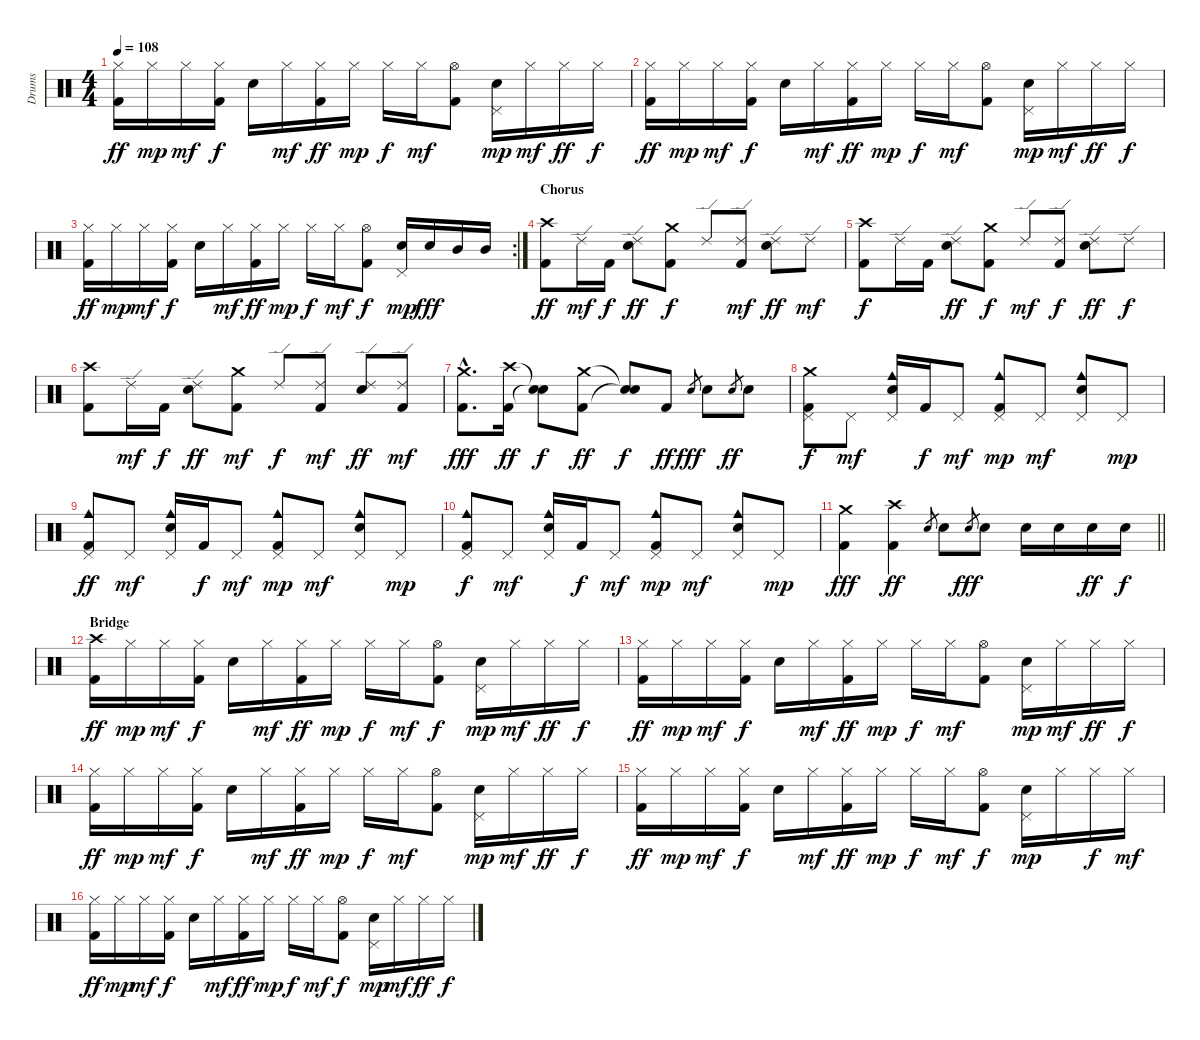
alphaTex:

\track ("Drums" "Drums") {instrument percussion}
\staff {score}
\articulation defaults
\ts (4 4)
\tempo 108
\clef neutral
\ks c
("Hi-Hat (closed)" "Kick (hit) 2").16{dy ff} "Hi-Hat (closed)".16{dy mp} "Hi-Hat (closed)".16{dy mf} ("Hi-Hat (closed)" "Kick (hit) 2").16{dy f} "Electric Snare (hit)".16 "Hi-Hat (closed)".16{dy mf} ("Hi-Hat (closed)" "Kick (hit) 2").16{dy ff} "Hi-Hat (closed)".16{dy mp} "Hi-Hat (closed)".16{dy f} "Hi-Hat (closed)".16{dy mf} ("Hi-Hat (open)" "Kick (hit) 2").8 ("Electric Snare (hit)" "Pedal Hi-Hat (hit)").16{dy mp} "Hi-Hat (closed)".16{dy mf} "Hi-Hat (closed)".16{dy ff} "Hi-Hat (closed)".16{dy f} |
("Hi-Hat (closed)" "Kick (hit) 2").16{dy ff} "Hi-Hat (closed)".16{dy mp} "Hi-Hat (closed)".16{dy mf} ("Hi-Hat (closed)" "Kick (hit) 2").16{dy f} "Electric Snare (hit)".16 "Hi-Hat (closed)".16{dy mf} ("Hi-Hat (closed)" "Kick (hit) 2").16{dy ff} "Hi-Hat (closed)".16{dy mp} "Hi-Hat (closed)".16{dy f} "Hi-Hat (closed)".16{dy mf} ("Hi-Hat (open)" "Kick (hit) 2").8 ("Electric Snare (hit)" "Pedal Hi-Hat (hit)").16{dy mp} "Hi-Hat (closed)".16{dy mf} "Hi-Hat (closed)".16{dy ff} "Hi-Hat (closed)".16{dy f} |
\rc 2
("Hi-Hat (closed)" "Kick (hit) 2").16{dy ff} "Hi-Hat (closed)".16{dy mp} "Hi-Hat (closed)".16{dy mf} ("Hi-Hat (closed)" "Kick (hit) 2").16{dy f} "Electric Snare (hit)".16 "Hi-Hat (closed)".16{dy mf} ("Hi-Hat (closed)" "Kick (hit) 2").16{dy ff} "Hi-Hat (closed)".16{dy mp} "Hi-Hat (closed)".16{dy f} "Hi-Hat (closed)".16{dy mf} ("Hi-Hat (open)" "Kick (hit) 2").8{dy f} ("Electric Snare (hit)" "Pedal Hi-Hat (hit)").16{dy mp} "Electric Snare (hit)".16{dy fff} "Mid Tom (hit)".16 "Mid Tom (hit)".16 |
\section ("" "Chorus")
("Crash high (hit)" "Kick (hit) 2").8{dy ff} "Ride (edge) 2".16{dy mf} "Kick (hit) 2".16{dy f} ("Ride (edge) 2" "Electric Snare (hit)").8{dy ff} ("Crash medium (hit)" "Kick (hit) 2").8{dy f} "Ride (edge) 2".8 ("Ride (edge) 2" "Kick (hit) 2").8{dy mf} ("Ride (edge) 2" "Electric Snare (hit)").8{dy ff} "Ride (edge) 2".8{dy mf} |
("Crash high (hit)" "Kick (hit) 2").8{dy f} "Ride (edge) 2".16 "Kick (hit) 2".16 ("Ride (edge) 2" "Electric Snare (hit)").8{dy ff} ("Crash medium (hit)" "Kick (hit) 2").8{dy f} "Ride (edge) 2".8{dy mf} ("Ride (edge) 2" "Kick (hit) 2").8{dy f} ("Ride (edge) 2" "Electric Snare (hit)").8{dy ff} "Ride (edge) 2".8{dy f} |
("Crash high (hit)" "Kick (hit) 2").8 "Ride (edge) 2".16{dy mf} "Kick (hit) 2".16{dy f} ("Ride (edge) 2" "Electric Snare (hit)").8{dy ff} ("Crash medium (hit)" "Kick (hit) 2").8{dy mf} "Ride (edge) 2".8{dy f} ("Ride (edge) 2" "Kick (hit) 2").8{dy mf} ("Ride (edge) 2" "Electric Snare (hit)").8{dy ff} ("Ride (edge) 2" "Kick (hit) 2").8{dy mf} |
("Crash medium (hit)"{hac} "Kick (hit) 2"{hac}).8{d dy fff} ("Crash high (hit)" "Kick (hit) 2").16{dy ff} ("Snare (hit)"{t} "Snare (hit)"{t}).8{dy f} ("Crash medium (hit)" "Kick (hit) 2").8{dy ff} ("Snare (hit)"{t} "Snare (hit)"{t}).8{dy f} "Kick (hit) 2".8{dy ff} "Electric Snare (hit)".8{gr dy fff} "Electric Snare (hit)".8 "Electric Snare (hit)"{sl}.8{gr dy ff} "Electric Snare (hit)".8 |
("Crash medium (hit)" "Pedal Hi-Hat (hit)" "Kick (hit) 2").8{dy f} "Pedal Hi-Hat (hit)".8{dy mf} ("Cowbell medium (hit)" "Electric Snare (hit)" "Pedal Hi-Hat (hit)").16 "Kick (hit) 2".16{dy f} "Pedal Hi-Hat (hit)".8{dy mf} ("Cowbell medium (hit)" "Pedal Hi-Hat (hit)" "Kick (hit) 2").8{dy mp} "Pedal Hi-Hat (hit)".8{dy mf} ("Cowbell medium (hit)" "Electric Snare (hit)" "Pedal Hi-Hat (hit)").8 "Pedal Hi-Hat (hit)".8{dy mp} |
("Cowbell medium (hit)" "Pedal Hi-Hat (hit)" "Kick (hit) 2").8{dy ff} "Pedal Hi-Hat (hit)".8{dy mf} ("Cowbell medium (hit)" "Electric Snare (hit)" "Pedal Hi-Hat (hit)").16 "Kick (hit) 2".16{dy f} "Pedal Hi-Hat (hit)".8{dy mf} ("Cowbell medium (hit)" "Pedal Hi-Hat (hit)" "Kick (hit) 2").8{dy mp} "Pedal Hi-Hat (hit)".8{dy mf} ("Cowbell medium (hit)" "Electric Snare (hit)" "Pedal Hi-Hat (hit)").8 "Pedal Hi-Hat (hit)".8{dy mp} |
("Cowbell medium (hit)" "Pedal Hi-Hat (hit)" "Kick (hit) 2").8{dy f} "Pedal Hi-Hat (hit)".8{dy mf} ("Cowbell medium (hit)" "Electric Snare (hit)" "Pedal Hi-Hat (hit)").16 "Kick (hit) 2".16{dy f} "Pedal Hi-Hat (hit)".8{dy mf} ("Cowbell medium (hit)" "Pedal Hi-Hat (hit)" "Kick (hit) 2").8{dy mp} "Pedal Hi-Hat (hit)".8{dy mf} ("Cowbell medium (hit)" "Electric Snare (hit)" "Pedal Hi-Hat (hit)").8 "Pedal Hi-Hat (hit)".8{dy mp} |
\barLineRight lightlight
("Crash medium (hit)" "Kick (hit) 2").4{dy fff} ("Crash high (hit)" "Kick (hit) 2").4{dy ff} "Electric Snare (hit)"{sl}.8{gr} "Electric Snare (hit)".8 "Electric Snare (hit)"{h}.8{gr dy fff} "Electric Snare (hit)".8 "Electric Snare (hit)".16 "Electric Snare (hit)".16 "Electric Snare (hit)".16{dy ff} "Electric Snare (hit)".16{dy f} |
\section ("" "Bridge")
("Crash high (hit)" "Kick (hit) 2").16{dy ff} "Hi-Hat (closed)".16{dy mp} "Hi-Hat (closed)".16{dy mf} ("Hi-Hat (closed)" "Kick (hit) 2").16{dy f} "Electric Snare (hit)".16 "Hi-Hat (closed)".16{dy mf} ("Hi-Hat (closed)" "Kick (hit) 2").16{dy ff} "Hi-Hat (closed)".16{dy mp} "Hi-Hat (closed)".16{dy f} "Hi-Hat (closed)".16{dy mf} ("Hi-Hat (open)" "Kick (hit) 2").8{dy f} ("Electric Snare (hit)" "Pedal Hi-Hat (hit)").16{dy mp} "Hi-Hat (closed)".16{dy mf} "Hi-Hat (closed)".16{dy ff} "Hi-Hat (closed)".16{dy f} |
("Hi-Hat (closed)" "Kick (hit) 2").16{dy ff} "Hi-Hat (closed)".16{dy mp} "Hi-Hat (closed)".16{dy mf} ("Hi-Hat (closed)" "Kick (hit) 2").16{dy f} "Electric Snare (hit)".16 "Hi-Hat (closed)".16{dy mf} ("Hi-Hat (closed)" "Kick (hit) 2").16{dy ff} "Hi-Hat (closed)".16{dy mp} "Hi-Hat (closed)".16{dy f} "Hi-Hat (closed)".16{dy mf} ("Hi-Hat (open)" "Kick (hit) 2").8 ("Electric Snare (hit)" "Pedal Hi-Hat (hit)").16{dy mp} "Hi-Hat (closed)".16{dy mf} "Hi-Hat (closed)".16{dy ff} "Hi-Hat (closed)".16{dy f} |
("Hi-Hat (closed)" "Kick (hit) 2").16{dy ff} "Hi-Hat (closed)".16{dy mp} "Hi-Hat (closed)".16{dy mf} ("Hi-Hat (closed)" "Kick (hit) 2").16{dy f} "Electric Snare (hit)".16 "Hi-Hat (closed)".16{dy mf} ("Hi-Hat (closed)" "Kick (hit) 2").16{dy ff} "Hi-Hat (closed)".16{dy mp} "Hi-Hat (closed)".16{dy f} "Hi-Hat (closed)".16{dy mf} ("Hi-Hat (open)" "Kick (hit) 2").8 ("Electric Snare (hit)" "Pedal Hi-Hat (hit)").16{dy mp} "Hi-Hat (closed)".16{dy mf} "Hi-Hat (closed)".16{dy ff} "Hi-Hat (closed)".16{dy f} |
("Hi-Hat (closed)" "Kick (hit) 2").16{dy ff} "Hi-Hat (closed)".16{dy mp} "Hi-Hat (closed)".16{dy mf} ("Hi-Hat (closed)" "Kick (hit) 2").16{dy f} "Electric Snare (hit)".16 "Hi-Hat (closed)".16{dy mf} ("Hi-Hat (closed)" "Kick (hit) 2").16{dy ff} "Hi-Hat (closed)".16{dy mp} "Hi-Hat (closed)".16{dy f} "Hi-Hat (closed)".16{dy mf} ("Hi-Hat (open)" "Kick (hit) 2").8{dy f} ("Electric Snare (hit)" "Pedal Hi-Hat (hit)").16{dy mp} "Hi-Hat (closed)".16 "Hi-Hat (closed)".16{dy f} "Hi-Hat (closed)".16{dy mf} |
("Hi-Hat (closed)" "Kick (hit) 2").16{dy ff} "Hi-Hat (closed)".16{dy mp} "Hi-Hat (closed)".16{dy mf} ("Hi-Hat (closed)" "Kick (hit) 2").16{dy f} "Electric Snare (hit)".16 "Hi-Hat (closed)".16{dy mf} ("Hi-Hat (closed)" "Kick (hit) 2").16{dy ff} "Hi-Hat (closed)".16{dy mp} "Hi-Hat (closed)".16{dy f} "Hi-Hat (closed)".16{dy mf} ("Hi-Hat (open)" "Kick (hit) 2").8{dy f} ("Electric Snare (hit)" "Pedal Hi-Hat (hit)").16{dy mp} "Hi-Hat (closed)".16{dy mf} "Hi-Hat (closed)".16{dy ff} "Hi-Hat (closed)".16{dy f}
